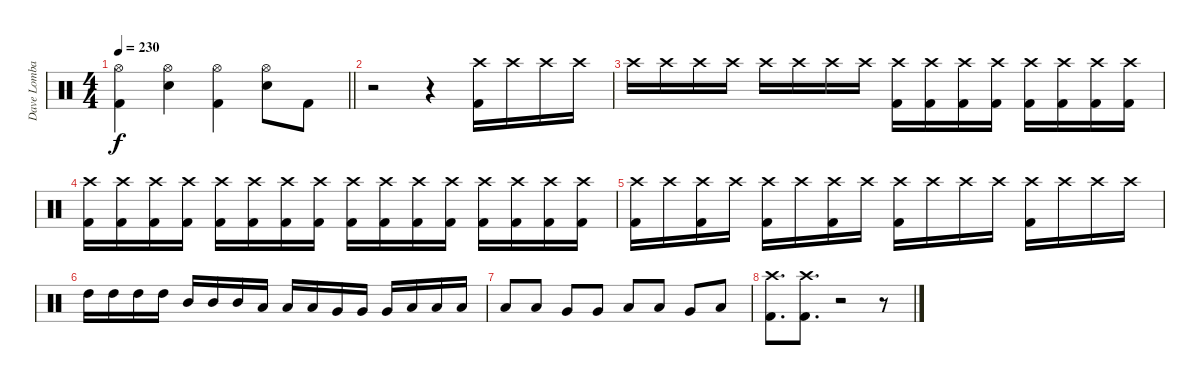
\track ("Dave Lombardo" "Dave Lomba") {instrument percussion}
\staff {score}
\articulation defaults
\ts (4 4)
\tempo 230
\clef neutral
\barLineRight lightlight
\ks c
("Hi-Hat (open)" "Kick (hit) 2").4{dy f} ("Hi-Hat (open)" "Snare (hit) 2").4 ("Hi-Hat (open)" "Kick (hit) 2").4 ("Hi-Hat (open)" "Snare (hit) 2").8 "Kick (hit) 2".8 |
r.2 r.4 ("Crash high (hit)" "Kick (hit) 2").16 "Crash high (hit)".16 "Crash high (hit)".16 "Crash high (hit)".16 |
"Crash high (hit)".16 "Crash high (hit)".16 "Crash high (hit)".16 "Crash high (hit)".16 "Crash high (hit)".16 "Crash high (hit)".16 "Crash high (hit)".16 "Crash high (hit)".16 ("Crash high (hit)" "Kick (hit) 2").16 ("Crash high (hit)" "Kick (hit) 2").16 ("Crash high (hit)" "Kick (hit) 2").16 ("Crash high (hit)" "Kick (hit) 2").16 ("Crash high (hit)" "Kick (hit) 2").16 ("Crash high (hit)" "Kick (hit) 2").16 ("Crash high (hit)" "Kick (hit) 2").16 ("Crash high (hit)" "Kick (hit) 2").16 |
("Crash high (hit)" "Kick (hit) 2").16 ("Crash high (hit)" "Kick (hit) 2").16 ("Crash high (hit)" "Kick (hit) 2").16 ("Crash high (hit)" "Kick (hit) 2").16 ("Crash high (hit)" "Kick (hit) 2").16 ("Crash high (hit)" "Kick (hit) 2").16 ("Crash high (hit)" "Kick (hit) 2").16 ("Crash high (hit)" "Kick (hit) 2").16 ("Crash high (hit)" "Kick (hit) 2").16 ("Crash high (hit)" "Kick (hit) 2").16 ("Crash high (hit)" "Kick (hit) 2").16 ("Crash high (hit)" "Kick (hit) 2").16 ("Crash high (hit)" "Kick (hit) 2").16 ("Crash high (hit)" "Kick (hit) 2").16 ("Crash high (hit)" "Kick (hit) 2").16 ("Crash high (hit)" "Kick (hit) 2").16 |
("Crash high (hit)" "Kick (hit) 2").16 "Crash high (hit)".16 ("Crash high (hit)" "Kick (hit) 2").16 "Crash high (hit)".16 ("Crash high (hit)" "Kick (hit) 2").16 "Crash high (hit)".16 ("Crash high (hit)" "Kick (hit) 2").16 "Crash high (hit)".16 ("Crash high (hit)" "Kick (hit) 2").16 "Crash high (hit)".16 "Crash high (hit)".16 "Crash high (hit)".16 ("Crash high (hit)" "Kick (hit) 2").16 "Crash high (hit)".16 "Crash high (hit)".16 "Crash high (hit)".16 |
"High Tom (hit)".16 "High Tom (hit)".16 "High Tom (hit)".16 "High Tom (hit)".16 "Mid Tom (hit)".16 "Mid Tom (hit)".16 "Mid Tom (hit)".16 "Low Tom (hit)".16 "Low Tom (hit)".16 "Low Tom (hit)".16 "Very Low Tom (hit)".16 "Very Low Tom (hit)".16 "Very Low Tom (hit)".16 "Low Floor Tom (hit)".16 "Low Floor Tom (hit)".16 "Low Floor Tom (hit)".16 |
"Low Tom (hit)".8 "Low Tom (hit)".8 "Very Low Tom (hit)".8 "Very Low Tom (hit)".8 "Low Floor Tom (hit)".8 "Low Floor Tom (hit)".8 "Very Low Tom (hit)".8 "Low Floor Tom (hit)".8 |
("Crash high (hit)" "Kick (hit) 2").8{d} ("Crash high (hit)" "Kick (hit) 2").8{d} r.2 r.8
